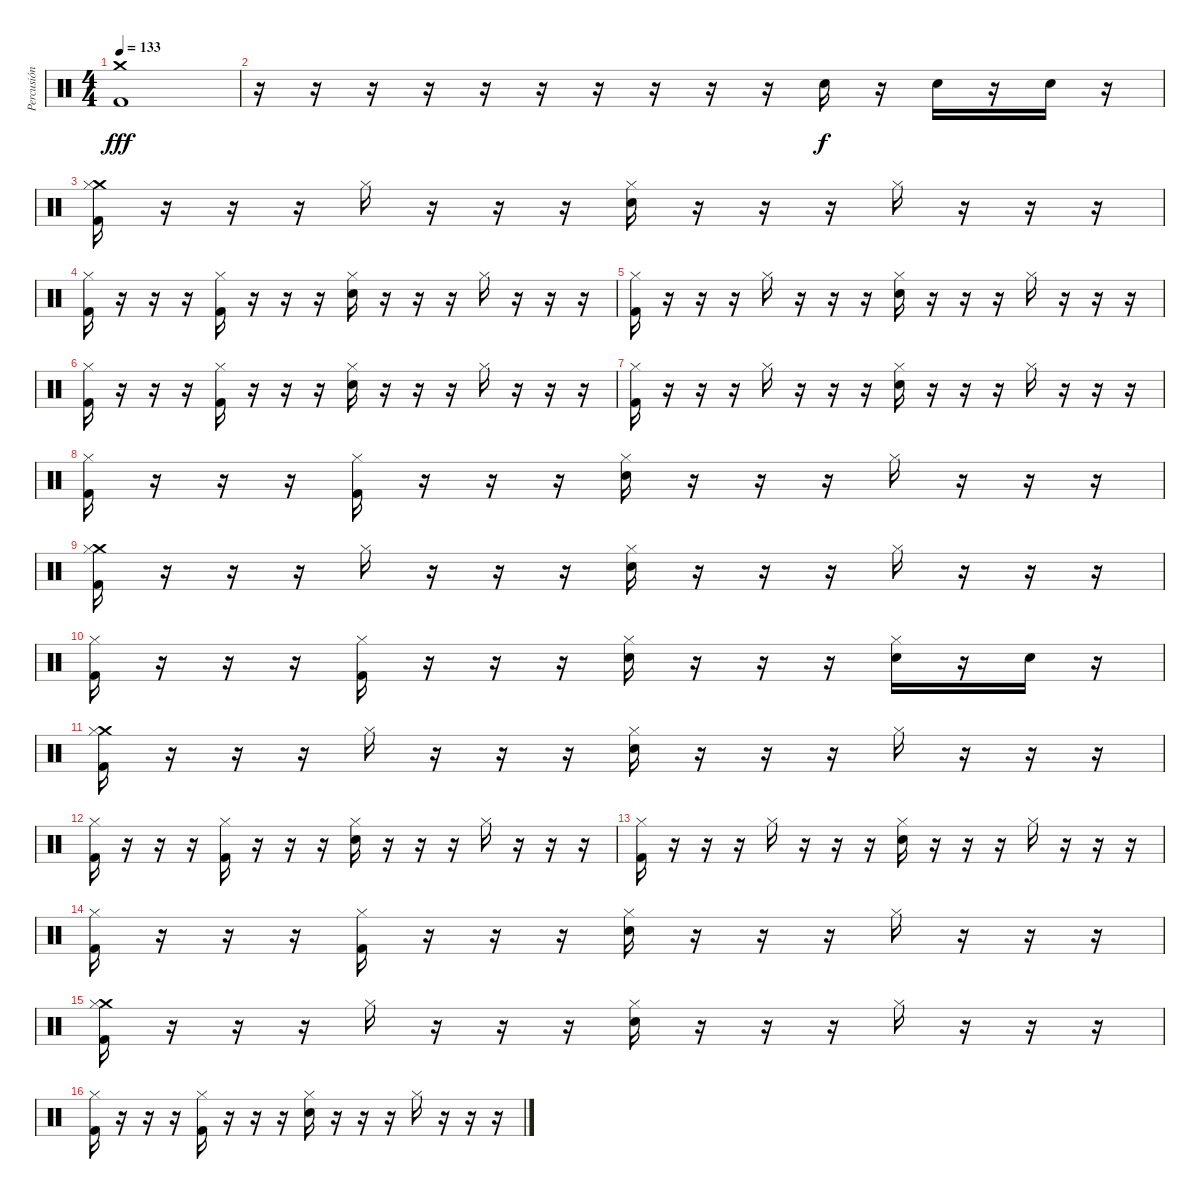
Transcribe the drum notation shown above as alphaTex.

\track ("Percusión" "Percusión") {instrument percussion}
\staff {score}
\articulation defaults
\ts (4 4)
\tempo 133
\clef neutral
\ks c
("Crash medium (hit)" "Kick (hit) 2").1{dy fff} |
r.16 r.16 r.16 r.16 r.16 r.16 r.16 r.16 r.16 r.16 "Snare (hit) 2".16{dy f} r.16 "Snare (hit) 2".16 r.16 "Snare (hit) 2".16 r.16 |
("Crash medium (hit)" "Hi-Hat (closed)" "Kick (hit) 2").16 r.16 r.16 r.16 "Hi-Hat (closed)".16 r.16 r.16 r.16 ("Hi-Hat (closed)" "Snare (hit) 2").16 r.16 r.16 r.16 "Hi-Hat (closed)".16 r.16 r.16 r.16 |
("Hi-Hat (closed)" "Kick (hit) 2").16 r.16 r.16 r.16 ("Hi-Hat (closed)" "Kick (hit) 2").16 r.16 r.16 r.16 ("Hi-Hat (closed)" "Snare (hit) 2").16 r.16 r.16 r.16 "Hi-Hat (closed)".16 r.16 r.16 r.16 |
("Hi-Hat (closed)" "Kick (hit) 2").16 r.16 r.16 r.16 "Hi-Hat (closed)".16 r.16 r.16 r.16 ("Hi-Hat (closed)" "Snare (hit) 2").16 r.16 r.16 r.16 "Hi-Hat (closed)".16 r.16 r.16 r.16 |
("Hi-Hat (closed)" "Kick (hit) 2").16 r.16 r.16 r.16 ("Hi-Hat (closed)" "Kick (hit) 2").16 r.16 r.16 r.16 ("Hi-Hat (closed)" "Snare (hit) 2").16 r.16 r.16 r.16 "Hi-Hat (closed)".16 r.16 r.16 r.16 |
("Hi-Hat (closed)" "Kick (hit) 2").16 r.16 r.16 r.16 "Hi-Hat (closed)".16 r.16 r.16 r.16 ("Hi-Hat (closed)" "Snare (hit) 2").16 r.16 r.16 r.16 "Hi-Hat (closed)".16 r.16 r.16 r.16 |
("Hi-Hat (closed)" "Kick (hit) 2").16 r.16 r.16 r.16 ("Hi-Hat (closed)" "Kick (hit) 2").16 r.16 r.16 r.16 ("Hi-Hat (closed)" "Snare (hit) 2").16 r.16 r.16 r.16 "Hi-Hat (closed)".16 r.16 r.16 r.16 |
("Crash medium (hit)" "Hi-Hat (closed)" "Kick (hit) 2").16 r.16 r.16 r.16 "Hi-Hat (closed)".16 r.16 r.16 r.16 ("Hi-Hat (closed)" "Snare (hit) 2").16 r.16 r.16 r.16 "Hi-Hat (closed)".16 r.16 r.16 r.16 |
("Hi-Hat (closed)" "Kick (hit) 2").16 r.16 r.16 r.16 ("Hi-Hat (closed)" "Kick (hit) 2").16 r.16 r.16 r.16 ("Hi-Hat (closed)" "Snare (hit) 2").16 r.16 r.16 r.16 ("Hi-Hat (closed)" "Snare (hit) 2").16 r.16 "Snare (hit) 2".16 r.16 |
("Crash medium (hit)" "Hi-Hat (closed)" "Kick (hit) 2").16 r.16 r.16 r.16 "Hi-Hat (closed)".16 r.16 r.16 r.16 ("Hi-Hat (closed)" "Snare (hit) 2").16 r.16 r.16 r.16 "Hi-Hat (closed)".16 r.16 r.16 r.16 |
("Hi-Hat (closed)" "Kick (hit) 2").16 r.16 r.16 r.16 ("Hi-Hat (closed)" "Kick (hit) 2").16 r.16 r.16 r.16 ("Hi-Hat (closed)" "Snare (hit) 2").16 r.16 r.16 r.16 "Hi-Hat (closed)".16 r.16 r.16 r.16 |
("Hi-Hat (closed)" "Kick (hit) 2").16 r.16 r.16 r.16 "Hi-Hat (closed)".16 r.16 r.16 r.16 ("Hi-Hat (closed)" "Snare (hit) 2").16 r.16 r.16 r.16 "Hi-Hat (closed)".16 r.16 r.16 r.16 |
("Hi-Hat (closed)" "Kick (hit) 2").16 r.16 r.16 r.16 ("Hi-Hat (closed)" "Kick (hit) 2").16 r.16 r.16 r.16 ("Hi-Hat (closed)" "Snare (hit) 2").16 r.16 r.16 r.16 "Hi-Hat (closed)".16 r.16 r.16 r.16 |
("Crash medium (hit)" "Hi-Hat (closed)" "Kick (hit) 2").16 r.16 r.16 r.16 "Hi-Hat (closed)".16 r.16 r.16 r.16 ("Hi-Hat (closed)" "Snare (hit) 2").16 r.16 r.16 r.16 "Hi-Hat (closed)".16 r.16 r.16 r.16 |
("Hi-Hat (closed)" "Kick (hit) 2").16 r.16 r.16 r.16 ("Hi-Hat (closed)" "Kick (hit) 2").16 r.16 r.16 r.16 ("Hi-Hat (closed)" "Snare (hit) 2").16 r.16 r.16 r.16 "Hi-Hat (closed)".16 r.16 r.16 r.16
